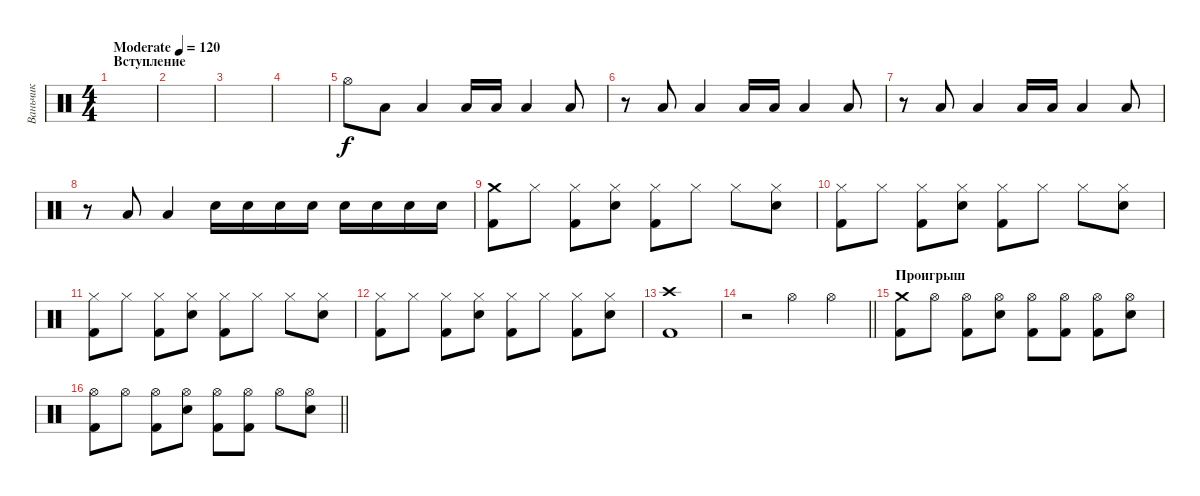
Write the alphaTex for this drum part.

\track ("Ваньчик" "Ваньчик") {instrument percussion}
\staff {score}
\articulation defaults
\ts (4 4)
\section ("" "Вступление")
\tempo (120 "Moderate")
\clef neutral
\ks c
|
|
|
|
"Hi-Hat (open)".8 "Low Floor Tom (hit)".8 "Low Floor Tom (hit)".4 "Low Floor Tom (hit)".16 "Low Floor Tom (hit)".16 "Low Floor Tom (hit)".4 "Low Floor Tom (hit)".8 |
r.8 "Low Floor Tom (hit)".8 "Low Floor Tom (hit)".4 "Low Floor Tom (hit)".16 "Low Floor Tom (hit)".16 "Low Floor Tom (hit)".4 "Low Floor Tom (hit)".8 |
r.8 "Low Floor Tom (hit)".8 "Low Floor Tom (hit)".4 "Low Floor Tom (hit)".16 "Low Floor Tom (hit)".16 "Low Floor Tom (hit)".4 "Low Floor Tom (hit)".8 |
r.8 "Low Floor Tom (hit)".8 "Low Floor Tom (hit)".4 "Snare (hit) 2".16 "Snare (hit) 2".16 "Snare (hit) 2".16 "Snare (hit) 2".16 "Snare (hit) 2".16 "Snare (hit) 2".16 "Snare (hit) 2".16 "Snare (hit) 2".16 |
("Crash medium (hit)" "Kick (hit) 2").8 "Hi-Hat (closed)".8 ("Hi-Hat (closed)" "Kick (hit) 2").8 ("Hi-Hat (closed)" "Snare (hit) 2").8 ("Hi-Hat (closed)" "Kick (hit) 2").8 "Hi-Hat (closed)".8 "Hi-Hat (closed)".8 ("Hi-Hat (closed)" "Snare (hit) 2").8 |
("Hi-Hat (closed)" "Kick (hit) 2").8 "Hi-Hat (closed)".8 ("Hi-Hat (closed)" "Kick (hit) 2").8 ("Hi-Hat (closed)" "Snare (hit) 2").8 ("Hi-Hat (closed)" "Kick (hit) 2").8 "Hi-Hat (closed)".8 "Hi-Hat (closed)".8 ("Hi-Hat (closed)" "Snare (hit) 2").8 |
("Hi-Hat (closed)" "Kick (hit) 2").8 "Hi-Hat (closed)".8 ("Hi-Hat (closed)" "Kick (hit) 2").8 ("Hi-Hat (closed)" "Snare (hit) 2").8 ("Hi-Hat (closed)" "Kick (hit) 2").8 "Hi-Hat (closed)".8 "Hi-Hat (closed)".8 ("Hi-Hat (closed)" "Snare (hit) 2").8 |
("Hi-Hat (closed)" "Kick (hit) 2").8 "Hi-Hat (closed)".8 ("Hi-Hat (closed)" "Kick (hit) 2").8 ("Hi-Hat (closed)" "Snare (hit) 2").8 ("Hi-Hat (closed)" "Kick (hit) 2").8 "Hi-Hat (closed)".8 ("Hi-Hat (closed)" "Kick (hit) 2").8 ("Hi-Hat (closed)" "Snare (hit) 2").8 |
("Crash high (hit)" "Kick (hit) 2").1 |
\barLineRight lightlight
r.2 "Hi-Hat (open)".4 "Hi-Hat (open)".4 |
\section ("" "Проигрыш")
("Crash medium (hit)" "Kick (hit) 2").8 "Hi-Hat (open)".8 ("Hi-Hat (open)" "Kick (hit) 2").8 ("Hi-Hat (open)" "Snare (hit) 2").8 ("Hi-Hat (open)" "Kick (hit) 2").8 ("Hi-Hat (open)" "Kick (hit) 2").8 ("Hi-Hat (open)" "Kick (hit) 2").8 ("Hi-Hat (open)" "Snare (hit) 2").8 |
\barLineRight lightlight
("Hi-Hat (open)" "Kick (hit) 2").8 "Hi-Hat (open)".8 ("Hi-Hat (open)" "Kick (hit) 2").8 ("Hi-Hat (open)" "Snare (hit) 2").8 ("Hi-Hat (open)" "Kick (hit) 2").8 ("Hi-Hat (open)" "Kick (hit) 2").8 "Hi-Hat (open)".8 ("Hi-Hat (open)" "Snare (hit) 2").8
